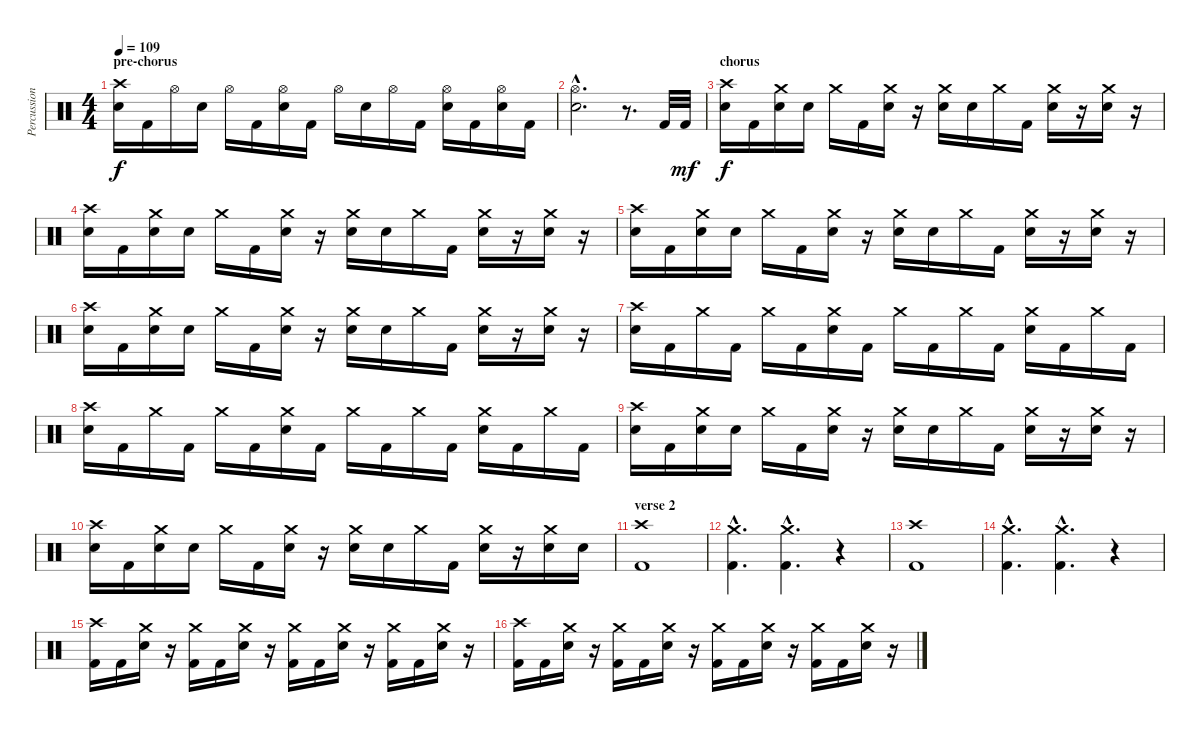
\track ("Percussion" "Percussion") {instrument percussion}
\staff {score}
\articulation defaults
\ts (4 4)
\section ("" "pre-chorus")
\tempo 109
\clef neutral
\ks c
("Crash high (hit)" "Electric Snare (hit)").16{dy f} "Kick (hit) 2".16 "Hi-Hat (open)".16 "Electric Snare (hit)".16 "Hi-Hat (open)".16 "Kick (hit) 2".16 ("Hi-Hat (open)" "Electric Snare (hit)").16 "Kick (hit) 2".16 "Hi-Hat (open)".16 "Electric Snare (hit)".16 "Hi-Hat (open)".16 "Kick (hit) 2".16 ("Hi-Hat (open)" "Electric Snare (hit)").16 "Kick (hit) 2".16 ("Hi-Hat (open)" "Electric Snare (hit)").16 "Kick (hit) 2".16 |
("Hi-Hat (open)"{hac} "Electric Snare (hit)"{hac}).2{d} r.8{d} "Kick (hit) 2".32 "Kick (hit) 2".32{dy mf} |
\section ("" "chorus")
("Crash high (hit)" "Electric Snare (hit)").16{dy f} "Kick (hit) 2".16 ("Crash medium (hit)" "Electric Snare (hit)").16 "Electric Snare (hit)".16 "Crash medium (hit)".16 "Kick (hit) 2".16 ("Crash medium (hit)" "Electric Snare (hit)").16 r.16 ("Crash medium (hit)" "Electric Snare (hit)").16 "Electric Snare (hit)".16 "Crash medium (hit)".16 "Kick (hit) 2".16 ("Crash medium (hit)" "Electric Snare (hit)").16 r.16 ("Crash medium (hit)" "Electric Snare (hit)").16 r.16 |
("Crash high (hit)" "Electric Snare (hit)").16 "Kick (hit) 2".16 ("Crash medium (hit)" "Electric Snare (hit)").16 "Electric Snare (hit)".16 "Crash medium (hit)".16 "Kick (hit) 2".16 ("Crash medium (hit)" "Electric Snare (hit)").16 r.16 ("Crash medium (hit)" "Electric Snare (hit)").16 "Electric Snare (hit)".16 "Crash medium (hit)".16 "Kick (hit) 2".16 ("Crash medium (hit)" "Electric Snare (hit)").16 r.16 ("Crash medium (hit)" "Electric Snare (hit)").16 r.16 |
("Crash high (hit)" "Electric Snare (hit)").16 "Kick (hit) 2".16 ("Crash medium (hit)" "Electric Snare (hit)").16 "Electric Snare (hit)".16 "Crash medium (hit)".16 "Kick (hit) 2".16 ("Crash medium (hit)" "Electric Snare (hit)").16 r.16 ("Crash medium (hit)" "Electric Snare (hit)").16 "Electric Snare (hit)".16 "Crash medium (hit)".16 "Kick (hit) 2".16 ("Crash medium (hit)" "Electric Snare (hit)").16 r.16 ("Crash medium (hit)" "Electric Snare (hit)").16 r.16 |
("Crash high (hit)" "Electric Snare (hit)").16 "Kick (hit) 2".16 ("Crash medium (hit)" "Electric Snare (hit)").16 "Electric Snare (hit)".16 "Crash medium (hit)".16 "Kick (hit) 2".16 ("Crash medium (hit)" "Electric Snare (hit)").16 r.16 ("Crash medium (hit)" "Electric Snare (hit)").16 "Electric Snare (hit)".16 "Crash medium (hit)".16 "Kick (hit) 2".16 ("Crash medium (hit)" "Electric Snare (hit)").16 r.16 ("Crash medium (hit)" "Electric Snare (hit)").16 r.16 |
("Crash high (hit)" "Electric Snare (hit)").16 "Kick (hit) 2".16 "Crash medium (hit)".16 "Kick (hit) 2".16 "Crash medium (hit)".16 "Kick (hit) 2".16 ("Crash medium (hit)" "Electric Snare (hit)").16 "Kick (hit) 2".16 "Crash medium (hit)".16 "Kick (hit) 2".16 "Crash medium (hit)".16 "Kick (hit) 2".16 ("Crash medium (hit)" "Electric Snare (hit)").16 "Kick (hit) 2".16 "Crash medium (hit)".16 "Kick (hit) 2".16 |
("Crash high (hit)" "Electric Snare (hit)").16 "Kick (hit) 2".16 "Crash medium (hit)".16 "Kick (hit) 2".16 "Crash medium (hit)".16 "Kick (hit) 2".16 ("Crash medium (hit)" "Electric Snare (hit)").16 "Kick (hit) 2".16 "Crash medium (hit)".16 "Kick (hit) 2".16 "Crash medium (hit)".16 "Kick (hit) 2".16 ("Crash medium (hit)" "Electric Snare (hit)").16 "Kick (hit) 2".16 "Crash medium (hit)".16 "Kick (hit) 2".16 |
("Crash high (hit)" "Electric Snare (hit)").16 "Kick (hit) 2".16 ("Crash medium (hit)" "Electric Snare (hit)").16 "Electric Snare (hit)".16 "Crash medium (hit)".16 "Kick (hit) 2".16 ("Crash medium (hit)" "Electric Snare (hit)").16 r.16 ("Crash medium (hit)" "Electric Snare (hit)").16 "Electric Snare (hit)".16 "Crash medium (hit)".16 "Kick (hit) 2".16 ("Crash medium (hit)" "Electric Snare (hit)").16 r.16 ("Crash medium (hit)" "Electric Snare (hit)").16 r.16 |
("Crash high (hit)" "Electric Snare (hit)").16 "Kick (hit) 2".16 ("Crash medium (hit)" "Electric Snare (hit)").16 "Electric Snare (hit)".16 "Crash medium (hit)".16 "Kick (hit) 2".16 ("Crash medium (hit)" "Electric Snare (hit)").16 r.16 ("Crash medium (hit)" "Electric Snare (hit)").16 "Electric Snare (hit)".16 "Crash medium (hit)".16 "Kick (hit) 2".16 ("Crash medium (hit)" "Electric Snare (hit)").16 r.16 ("Crash medium (hit)" "Electric Snare (hit)").16 "Electric Snare (hit)".16 |
\section ("" "verse 2")
("Crash high (hit)" "Kick (hit) 2").1 |
("Crash medium (hit)"{hac} "Kick (hit) 2"{hac}).4{d} ("Crash medium (hit)"{hac} "Kick (hit) 2"{hac}).4{d} r.4 |
("Crash high (hit)" "Kick (hit) 2").1 |
("Crash medium (hit)"{hac} "Kick (hit) 2"{hac}).4{d} ("Crash medium (hit)"{hac} "Kick (hit) 2"{hac}).4{d} r.4 |
("Crash high (hit)" "Kick (hit) 2").16 "Kick (hit) 2".16 ("Crash medium (hit)" "Electric Snare (hit)").16 r.16 ("Crash medium (hit)" "Kick (hit) 2").16 "Kick (hit) 2".16 ("Crash medium (hit)" "Electric Snare (hit)").16 r.16 ("Crash medium (hit)" "Kick (hit) 2").16 "Kick (hit) 2".16 ("Crash medium (hit)" "Electric Snare (hit)").16 r.16 ("Crash medium (hit)" "Kick (hit) 2").16 "Kick (hit) 2".16 ("Crash medium (hit)" "Electric Snare (hit)").16 r.16 |
("Crash high (hit)" "Kick (hit) 2").16 "Kick (hit) 2".16 ("Crash medium (hit)" "Electric Snare (hit)").16 r.16 ("Crash medium (hit)" "Kick (hit) 2").16 "Kick (hit) 2".16 ("Crash medium (hit)" "Electric Snare (hit)").16 r.16 ("Crash medium (hit)" "Kick (hit) 2").16 "Kick (hit) 2".16 ("Crash medium (hit)" "Electric Snare (hit)").16 r.16 ("Crash medium (hit)" "Kick (hit) 2").16 "Kick (hit) 2".16 ("Crash medium (hit)" "Electric Snare (hit)").16 r.16
